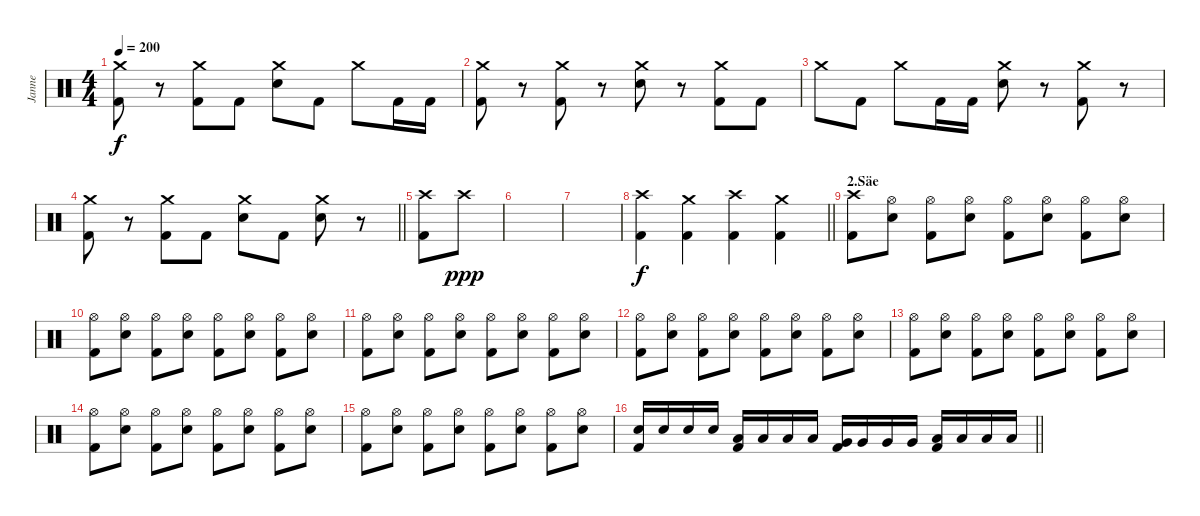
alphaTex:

\track ("Janne" "Janne") {instrument percussion}
\staff {score}
\articulation defaults
\ts (4 4)
\tempo 200
\clef neutral
\ks c
("Crash medium (hit)" "Kick (hit) 2").8{dy f} r.8 ("Crash medium (hit)" "Kick (hit) 2").8 "Kick (hit) 2".8 ("Crash medium (hit)" "Electric Snare (hit)").8 "Kick (hit) 2".8 "Crash medium (hit)".8 "Kick (hit) 2".16 "Kick (hit) 2".16 |
("Crash medium (hit)" "Kick (hit) 2").8 r.8 ("Crash medium (hit)" "Kick (hit) 2").8 r.8 ("Crash medium (hit)" "Electric Snare (hit)").8 r.8 ("Crash medium (hit)" "Kick (hit) 2").8 "Kick (hit) 2".8 |
"Crash medium (hit)".8 "Kick (hit) 2".8 "Crash medium (hit)".8 "Kick (hit) 2".16 "Kick (hit) 2".16 ("Crash medium (hit)" "Electric Snare (hit)").8 r.8 ("Crash medium (hit)" "Kick (hit) 2").8 r.8 |
\barLineRight lightlight
("Crash medium (hit)" "Kick (hit) 2").8 r.8 ("Crash medium (hit)" "Kick (hit) 2").8 "Kick (hit) 2".8 ("Crash medium (hit)" "Electric Snare (hit)").8 "Kick (hit) 2".8 ("Crash medium (hit)" "Electric Snare (hit)").8 r.8 |
\section ("" "")
("Crash high (hit)" "Kick (hit) 2").8 "Crash high (hit)".8{dy ppp} |
|
|
\barLineRight lightlight
("Crash high (hit)" "Kick (hit) 2").4{dy f} ("Crash medium (hit)" "Kick (hit) 2").4 ("Crash high (hit)" "Kick (hit) 2").4 ("Crash medium (hit)" "Kick (hit) 2").4 |
\section ("" "2.Säe")
("Crash high (hit)" "Kick (hit) 2").8 ("Hi-Hat (open)" "Electric Snare (hit)").8 ("Hi-Hat (open)" "Kick (hit) 2").8 ("Hi-Hat (open)" "Electric Snare (hit)").8 ("Hi-Hat (open)" "Kick (hit) 2").8 ("Hi-Hat (open)" "Electric Snare (hit)").8 ("Hi-Hat (open)" "Kick (hit) 2").8 ("Hi-Hat (open)" "Electric Snare (hit)").8 |
("Hi-Hat (open)" "Kick (hit) 2").8 ("Hi-Hat (open)" "Electric Snare (hit)").8 ("Hi-Hat (open)" "Kick (hit) 2").8 ("Hi-Hat (open)" "Electric Snare (hit)").8 ("Hi-Hat (open)" "Kick (hit) 2").8 ("Hi-Hat (open)" "Electric Snare (hit)").8 ("Hi-Hat (open)" "Kick (hit) 2").8 ("Hi-Hat (open)" "Electric Snare (hit)").8 |
("Hi-Hat (open)" "Kick (hit) 2").8 ("Hi-Hat (open)" "Electric Snare (hit)").8 ("Hi-Hat (open)" "Kick (hit) 2").8 ("Hi-Hat (open)" "Electric Snare (hit)").8 ("Hi-Hat (open)" "Kick (hit) 2").8 ("Hi-Hat (open)" "Electric Snare (hit)").8 ("Hi-Hat (open)" "Kick (hit) 2").8 ("Hi-Hat (open)" "Electric Snare (hit)").8 |
("Hi-Hat (open)" "Kick (hit) 2").8 ("Hi-Hat (open)" "Electric Snare (hit)").8 ("Hi-Hat (open)" "Kick (hit) 2").8 ("Hi-Hat (open)" "Electric Snare (hit)").8 ("Hi-Hat (open)" "Kick (hit) 2").8 ("Hi-Hat (open)" "Electric Snare (hit)").8 ("Hi-Hat (open)" "Kick (hit) 2").8 ("Hi-Hat (open)" "Electric Snare (hit)").8 |
("Hi-Hat (open)" "Kick (hit) 2").8 ("Hi-Hat (open)" "Electric Snare (hit)").8 ("Hi-Hat (open)" "Kick (hit) 2").8 ("Hi-Hat (open)" "Electric Snare (hit)").8 ("Hi-Hat (open)" "Kick (hit) 2").8 ("Hi-Hat (open)" "Electric Snare (hit)").8 ("Hi-Hat (open)" "Kick (hit) 2").8 ("Hi-Hat (open)" "Electric Snare (hit)").8 |
("Hi-Hat (open)" "Kick (hit) 2").8 ("Hi-Hat (open)" "Electric Snare (hit)").8 ("Hi-Hat (open)" "Kick (hit) 2").8 ("Hi-Hat (open)" "Electric Snare (hit)").8 ("Hi-Hat (open)" "Kick (hit) 2").8 ("Hi-Hat (open)" "Electric Snare (hit)").8 ("Hi-Hat (open)" "Kick (hit) 2").8 ("Hi-Hat (open)" "Electric Snare (hit)").8 |
("Hi-Hat (open)" "Kick (hit) 2").8 ("Hi-Hat (open)" "Electric Snare (hit)").8 ("Hi-Hat (open)" "Kick (hit) 2").8 ("Hi-Hat (open)" "Electric Snare (hit)").8 ("Hi-Hat (open)" "Kick (hit) 2").8 ("Hi-Hat (open)" "Electric Snare (hit)").8 ("Hi-Hat (open)" "Kick (hit) 2").8 ("Hi-Hat (open)" "Electric Snare (hit)").8 |
\barLineRight lightlight
("Electric Snare (hit)" "Kick (hit) 2").16 "Electric Snare (hit)".16 "Electric Snare (hit)".16 "Electric Snare (hit)".16 ("Low Tom (hit)" "Kick (hit) 2").16 "Low Tom (hit)".16 "Low Tom (hit)".16 "Low Tom (hit)".16 ("Very Low Tom (hit)" "Kick (hit) 2").16 "Very Low Tom (hit)".16 "Very Low Tom (hit)".16 "Very Low Tom (hit)".16 ("Low Floor Tom (hit)" "Kick (hit) 2").16 "Low Floor Tom (hit)".16 "Low Floor Tom (hit)".16 "Low Floor Tom (hit)".16
